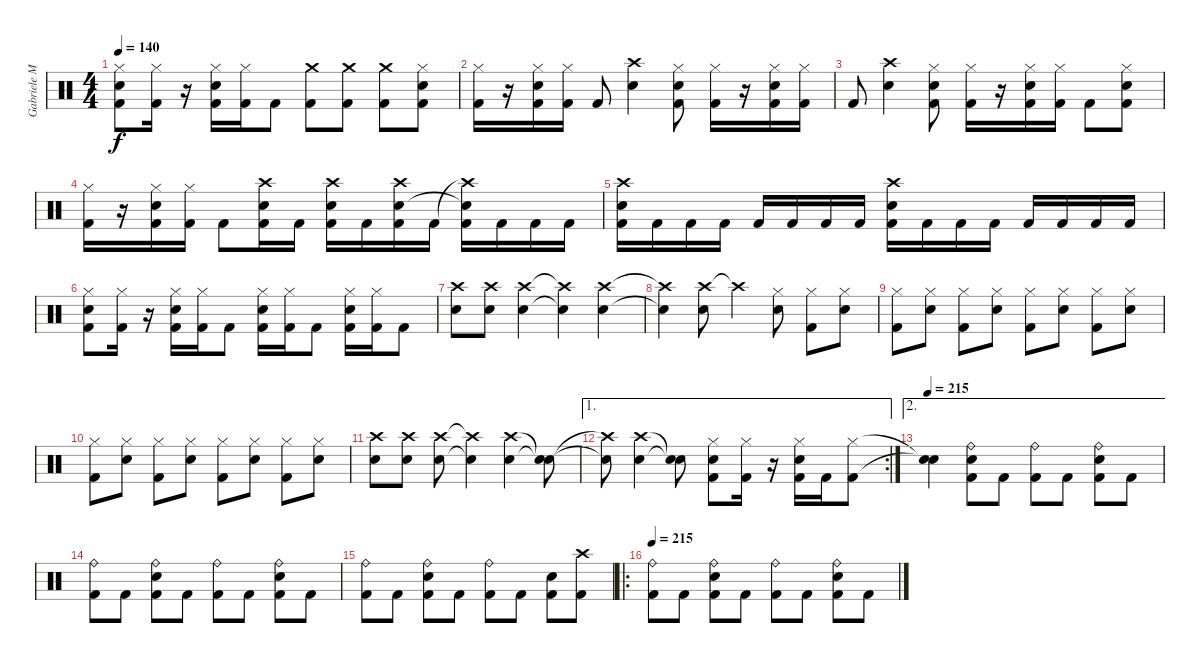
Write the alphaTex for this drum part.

\track ("Gabriele Malatesta" "Gabriele M") {instrument percussion}
\staff {score}
\articulation defaults
\ts (4 4)
\tempo 140
\clef neutral
\ks c
("Hi-Hat (closed)" "Electric Snare (hit)" "Kick (hit) 2").8{dy f} ("Hi-Hat (closed)" "Kick (hit) 2").16 r.16 ("Hi-Hat (closed)" "Electric Snare (hit)" "Kick (hit) 2").16 ("Hi-Hat (closed)" "Kick (hit) 2").16 "Kick (hit) 2".8 ("Crash medium (hit)" "Kick (hit) 2").8 ("Crash medium (hit)" "Kick (hit) 2").8 ("Crash medium (hit)" "Kick (hit) 2").8 ("Hi-Hat (closed)" "Electric Snare (hit)" "Kick (hit) 2").8 |
("Hi-Hat (closed)" "Kick (hit) 2").16 r.16 ("Hi-Hat (closed)" "Electric Snare (hit)" "Kick (hit) 2").16 ("Hi-Hat (closed)" "Kick (hit) 2").16 "Kick (hit) 2".8 ("Crash high (hit)" "Electric Snare (hit)").4 ("Hi-Hat (closed)" "Electric Snare (hit)" "Kick (hit) 2").8 ("Hi-Hat (closed)" "Kick (hit) 2").16 r.16 ("Hi-Hat (closed)" "Electric Snare (hit)" "Kick (hit) 2").16 ("Hi-Hat (closed)" "Kick (hit) 2").16 |
"Kick (hit) 2".8 ("Crash high (hit)" "Electric Snare (hit)").4 ("Hi-Hat (closed)" "Electric Snare (hit)" "Kick (hit) 2").8 ("Hi-Hat (closed)" "Kick (hit) 2").16 r.16 ("Hi-Hat (closed)" "Electric Snare (hit)" "Kick (hit) 2").16 ("Hi-Hat (closed)" "Kick (hit) 2").16 "Kick (hit) 2".8 ("Hi-Hat (closed)" "Electric Snare (hit)" "Kick (hit) 2").8 |
("Hi-Hat (closed)" "Kick (hit) 2").16 r.16 ("Hi-Hat (closed)" "Electric Snare (hit)" "Kick (hit) 2").16 ("Hi-Hat (closed)" "Kick (hit) 2").16 "Kick (hit) 2".8 ("Crash high (hit)" "Electric Snare (hit)" "Kick (hit) 2").16 "Kick (hit) 2".16 ("Crash high (hit)" "Electric Snare (hit)" "Kick (hit) 2").16 "Kick (hit) 2".16 ("Crash high (hit)" "Electric Snare (hit)" "Kick (hit) 2").16 "Kick (hit) 2".16 ("Crash high (hit)"{t} "Electric Snare (hit)"{t} "Kick (hit) 2").16 "Kick (hit) 2".16 "Kick (hit) 2".16 "Kick (hit) 2".16 |
("Crash high (hit)" "Electric Snare (hit)" "Kick (hit) 2").16 "Kick (hit) 2".16 "Kick (hit) 2".16 "Kick (hit) 2".16 "Kick (hit) 2".16 "Kick (hit) 2".16 "Kick (hit) 2".16 "Kick (hit) 2".16 ("Crash high (hit)" "Electric Snare (hit)" "Kick (hit) 2").16 "Kick (hit) 2".16 "Kick (hit) 2".16 "Kick (hit) 2".16 "Kick (hit) 2".16 "Kick (hit) 2".16 "Kick (hit) 2".16 "Kick (hit) 2".16 |
("Hi-Hat (closed)" "Electric Snare (hit)" "Kick (hit) 2").8 ("Hi-Hat (closed)" "Kick (hit) 2").16 r.16 ("Hi-Hat (closed)" "Electric Snare (hit)" "Kick (hit) 2").16 ("Hi-Hat (closed)" "Kick (hit) 2").16 "Kick (hit) 2".8 ("Hi-Hat (closed)" "Electric Snare (hit)" "Kick (hit) 2").16 ("Hi-Hat (closed)" "Kick (hit) 2").16 "Kick (hit) 2".8 ("Hi-Hat (closed)" "Electric Snare (hit)" "Kick (hit) 2").16 ("Hi-Hat (closed)" "Kick (hit) 2").16 "Kick (hit) 2".8 |
("Crash high (hit)" "Electric Snare (hit)").8 ("Crash high (hit)" "Electric Snare (hit)").8 ("Crash high (hit)" "Electric Snare (hit)").4 ("Crash high (hit)"{t} "Electric Snare (hit)"{t}).4 ("Crash high (hit)" "Electric Snare (hit)").4 |
("Crash high (hit)"{t} "Electric Snare (hit)"{t}).4 ("Crash high (hit)" "Electric Snare (hit)").8 "Crash high (hit)"{t}.4 ("Hi-Hat (closed)" "Electric Snare (hit)").8{volume 14} ("Hi-Hat (closed)" "Kick (hit) 2").8 ("Hi-Hat (closed)" "Electric Snare (hit)").8 |
("Hi-Hat (closed)" "Kick (hit) 2").8 ("Hi-Hat (closed)" "Electric Snare (hit)").8 ("Hi-Hat (closed)" "Kick (hit) 2").8 ("Hi-Hat (closed)" "Electric Snare (hit)").8 ("Hi-Hat (closed)" "Kick (hit) 2").8 ("Hi-Hat (closed)" "Electric Snare (hit)").8 ("Hi-Hat (closed)" "Kick (hit) 2").8 ("Hi-Hat (closed)" "Electric Snare (hit)").8 |
("Hi-Hat (closed)" "Kick (hit) 2").8 ("Hi-Hat (closed)" "Electric Snare (hit)").8 ("Hi-Hat (closed)" "Kick (hit) 2").8 ("Hi-Hat (closed)" "Electric Snare (hit)").8 ("Hi-Hat (closed)" "Kick (hit) 2").8 ("Hi-Hat (closed)" "Electric Snare (hit)").8 ("Hi-Hat (closed)" "Kick (hit) 2").8 ("Hi-Hat (closed)" "Electric Snare (hit)").8 |
("Crash high (hit)" "Electric Snare (hit)").8{volume 15} ("Crash high (hit)" "Electric Snare (hit)").8 ("Crash high (hit)" "Electric Snare (hit)").8 ("Crash high (hit)"{t} "Electric Snare (hit)"{t}).4 ("Crash high (hit)" "Electric Snare (hit)").4 ("Snare (hit)"{t} "Snare (hit)"{t}).8 |
\ae 1
\rc 2
("Crash high (hit)"{t} "Electric Snare (hit)"{t}).8 ("Crash high (hit)" "Electric Snare (hit)").4 ("Snare (hit)"{t} "Snare (hit)"{t}).8 ("Hi-Hat (closed)" "Electric Snare (hit)" "Kick (hit) 2").8 ("Hi-Hat (closed)" "Kick (hit) 2").16 r.16 ("Hi-Hat (closed)" "Electric Snare (hit)" "Kick (hit) 2").16 "Kick (hit) 2".16 ("Hi-Hat (closed)" "Kick (hit) 2").8 |
\ae 2
\tempo 215
("Snare (hit)"{t} "Snare (hit)"{t}).4 ("Ride (bell)" "Electric Snare (hit)" "Kick (hit) 2").8 "Kick (hit) 2".8 ("Ride (bell)" "Kick (hit) 2").8 "Kick (hit) 2".8 ("Ride (bell)" "Electric Snare (hit)" "Kick (hit) 2").8 "Kick (hit) 2".8 |
("Ride (bell)" "Kick (hit) 2").8 "Kick (hit) 2".8 ("Ride (bell)" "Electric Snare (hit)" "Kick (hit) 2").8 "Kick (hit) 2".8 ("Ride (bell)" "Kick (hit) 2").8 "Kick (hit) 2".8 ("Ride (bell)" "Electric Snare (hit)" "Kick (hit) 2").8 "Kick (hit) 2".8 |
("Ride (bell)" "Kick (hit) 2").8 "Kick (hit) 2".8 ("Ride (bell)" "Electric Snare (hit)" "Kick (hit) 2").8 "Kick (hit) 2".8 ("Ride (bell)" "Kick (hit) 2").8 "Kick (hit) 2".8 ("Electric Snare (hit)" "Kick (hit) 2").8 ("Crash high (hit)" "Kick (hit) 2").8 |
\ro
\tempo 215
("Ride (bell)" "Kick (hit) 2").8 "Kick (hit) 2".8 ("Ride (bell)" "Electric Snare (hit)" "Kick (hit) 2").8 "Kick (hit) 2".8 ("Ride (bell)" "Kick (hit) 2").8 "Kick (hit) 2".8 ("Ride (bell)" "Electric Snare (hit)" "Kick (hit) 2").8 "Kick (hit) 2".8
